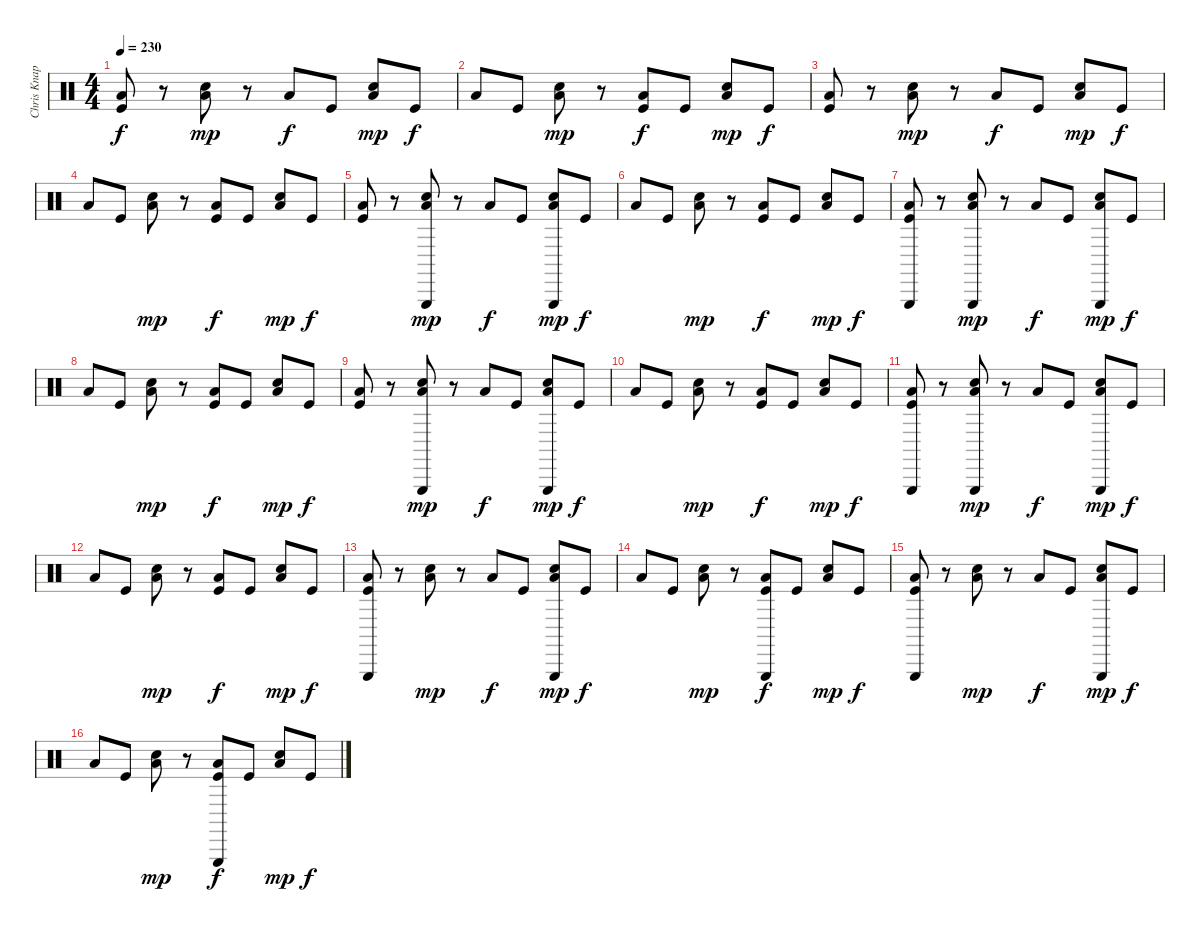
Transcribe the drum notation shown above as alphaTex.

\track ("Chris Knapp" "Chris Knap") {instrument percussion}
\staff {score}
\articulation defaults
\ts (4 4)
\tempo 230
\clef neutral
\ks c
("Low Floor Tom (hit)" "Kick (hit)").8{dy f} r.8 ("Electric Snare (hit)" "Low Floor Tom (hit)").8{dy mp} r.8 "Low Floor Tom (hit)".8{dy f} "Kick (hit)".8 ("Electric Snare (hit)" "Low Floor Tom (hit)").8{dy mp} "Kick (hit)".8{dy f} |
"Low Floor Tom (hit)".8 "Kick (hit)".8 ("Electric Snare (hit)" "Low Floor Tom (hit)").8{dy mp} r.8 ("Low Floor Tom (hit)" "Kick (hit)").8{dy f} "Kick (hit)".8 ("Electric Snare (hit)" "Low Floor Tom (hit)").8{dy mp} "Kick (hit)".8{dy f} |
("Low Floor Tom (hit)" "Kick (hit)").8 r.8 ("Electric Snare (hit)" "Low Floor Tom (hit)").8{dy mp} r.8 "Low Floor Tom (hit)".8{dy f} "Kick (hit)".8 ("Electric Snare (hit)" "Low Floor Tom (hit)").8{dy mp} "Kick (hit)".8{dy f} |
"Low Floor Tom (hit)".8 "Kick (hit)".8 ("Electric Snare (hit)" "Low Floor Tom (hit)").8{dy mp} r.8 ("Low Floor Tom (hit)" "Kick (hit)").8{dy f} "Kick (hit)".8 ("Electric Snare (hit)" "Low Floor Tom (hit)").8{dy mp} "Kick (hit)".8{dy f} |
("Low Floor Tom (hit)" "Kick (hit)").8 r.8 ("Triangle (hit)" "Electric Snare (hit)" "Low Floor Tom (hit)").8{dy mp} r.8 "Low Floor Tom (hit)".8{dy f} "Kick (hit)".8 ("Triangle (hit)" "Electric Snare (hit)" "Low Floor Tom (hit)").8{dy mp} "Kick (hit)".8{dy f} |
"Low Floor Tom (hit)".8 "Kick (hit)".8 ("Electric Snare (hit)" "Low Floor Tom (hit)").8{dy mp} r.8 ("Low Floor Tom (hit)" "Kick (hit)").8{dy f} "Kick (hit)".8 ("Electric Snare (hit)" "Low Floor Tom (hit)").8{dy mp} "Kick (hit)".8{dy f} |
("Triangle (hit)" "Low Floor Tom (hit)" "Kick (hit)").8 r.8 ("Triangle (hit)" "Electric Snare (hit)" "Low Floor Tom (hit)").8{dy mp} r.8 "Low Floor Tom (hit)".8{dy f} "Kick (hit)".8 ("Triangle (hit)" "Electric Snare (hit)" "Low Floor Tom (hit)").8{dy mp} "Kick (hit)".8{dy f} |
"Low Floor Tom (hit)".8 "Kick (hit)".8 ("Electric Snare (hit)" "Low Floor Tom (hit)").8{dy mp} r.8 ("Low Floor Tom (hit)" "Kick (hit)").8{dy f} "Kick (hit)".8 ("Electric Snare (hit)" "Low Floor Tom (hit)").8{dy mp} "Kick (hit)".8{dy f} |
("Low Floor Tom (hit)" "Kick (hit)").8 r.8 ("Triangle (hit)" "Electric Snare (hit)" "Low Floor Tom (hit)").8{dy mp} r.8 "Low Floor Tom (hit)".8{dy f} "Kick (hit)".8 ("Triangle (hit)" "Electric Snare (hit)" "Low Floor Tom (hit)").8{dy mp} "Kick (hit)".8{dy f} |
"Low Floor Tom (hit)".8 "Kick (hit)".8 ("Electric Snare (hit)" "Low Floor Tom (hit)").8{dy mp} r.8 ("Low Floor Tom (hit)" "Kick (hit)").8{dy f} "Kick (hit)".8 ("Electric Snare (hit)" "Low Floor Tom (hit)").8{dy mp} "Kick (hit)".8{dy f} |
("Triangle (hit)" "Low Floor Tom (hit)" "Kick (hit)").8 r.8 ("Triangle (hit)" "Electric Snare (hit)" "Low Floor Tom (hit)").8{dy mp} r.8 "Low Floor Tom (hit)".8{dy f} "Kick (hit)".8 ("Triangle (hit)" "Electric Snare (hit)" "Low Floor Tom (hit)").8{dy mp} "Kick (hit)".8{dy f} |
"Low Floor Tom (hit)".8 "Kick (hit)".8 ("Electric Snare (hit)" "Low Floor Tom (hit)").8{dy mp} r.8 ("Low Floor Tom (hit)" "Kick (hit)").8{dy f} "Kick (hit)".8 ("Electric Snare (hit)" "Low Floor Tom (hit)").8{dy mp} "Kick (hit)".8{dy f} |
("Triangle (hit)" "Low Floor Tom (hit)" "Kick (hit)").8 r.8 ("Electric Snare (hit)" "Low Floor Tom (hit)").8{dy mp} r.8 "Low Floor Tom (hit)".8{dy f} "Kick (hit)".8 ("Triangle (hit)" "Electric Snare (hit)" "Low Floor Tom (hit)").8{dy mp} "Kick (hit)".8{dy f} |
"Low Floor Tom (hit)".8 "Kick (hit)".8 ("Electric Snare (hit)" "Low Floor Tom (hit)").8{dy mp} r.8 ("Triangle (hit)" "Low Floor Tom (hit)" "Kick (hit)").8{dy f} "Kick (hit)".8 ("Electric Snare (hit)" "Low Floor Tom (hit)").8{dy mp} "Kick (hit)".8{dy f} |
("Triangle (hit)" "Low Floor Tom (hit)" "Kick (hit)").8 r.8 ("Electric Snare (hit)" "Low Floor Tom (hit)").8{dy mp} r.8 "Low Floor Tom (hit)".8{dy f} "Kick (hit)".8 ("Triangle (hit)" "Electric Snare (hit)" "Low Floor Tom (hit)").8{dy mp} "Kick (hit)".8{dy f} |
"Low Floor Tom (hit)".8 "Kick (hit)".8 ("Electric Snare (hit)" "Low Floor Tom (hit)").8{dy mp} r.8 ("Triangle (hit)" "Low Floor Tom (hit)" "Kick (hit)").8{dy f} "Kick (hit)".8 ("Electric Snare (hit)" "Low Floor Tom (hit)").8{dy mp} "Kick (hit)".8{dy f}
